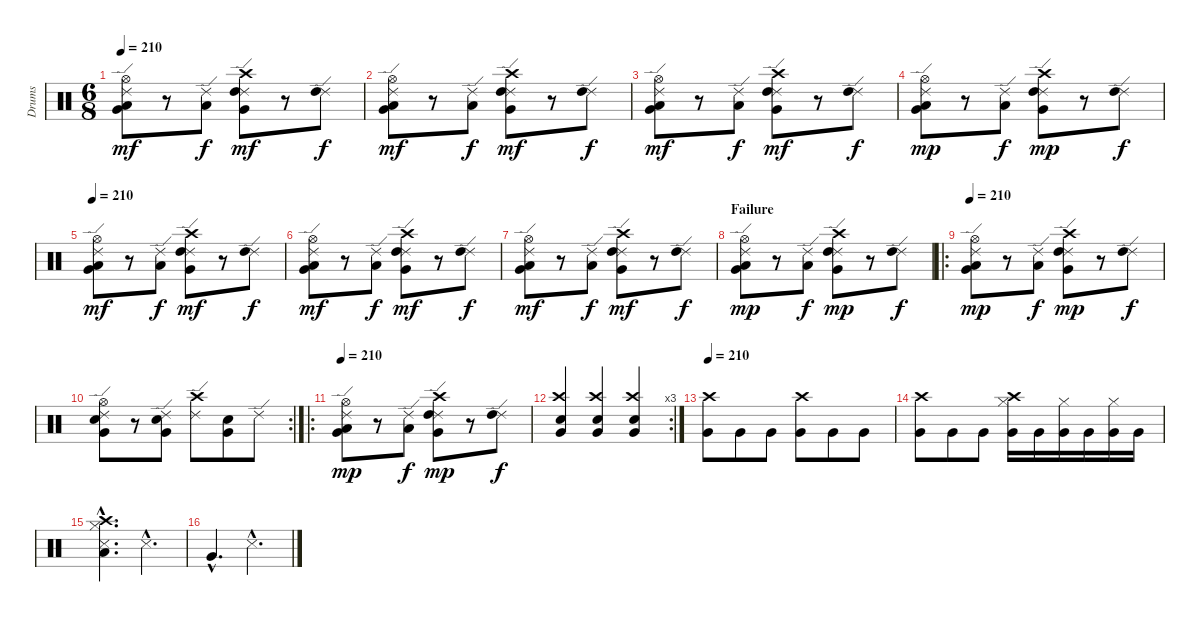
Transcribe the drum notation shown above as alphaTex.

\track ("Drums" "Drums") {instrument percussion}
\staff {score}
\articulation defaults
\ts (6 8)
\tempo 210
\clef neutral
\ks c
("Ride (edge) 2" "Hi-Hat (open)" "Low Tom (hit)" "Very Low Tom (hit)").8{dy mf} r.8 ("Ride (edge) 2" "Low Tom (hit)").8{dy f} ("Ride (edge) 2" "Crash high (hit)" "High Tom (hit)" "Very Low Tom (hit)").8{dy mf} r.8 ("Ride (edge) 2" "High Tom (hit)").8{dy f} |
("Ride (edge) 2" "Hi-Hat (open)" "Low Tom (hit)" "Very Low Tom (hit)").8{dy mf} r.8 ("Ride (edge) 2" "Low Tom (hit)").8{dy f} ("Ride (edge) 2" "Crash high (hit)" "High Tom (hit)" "Very Low Tom (hit)").8{dy mf} r.8 ("Ride (edge) 2" "High Tom (hit)").8{dy f} |
("Ride (edge) 2" "Hi-Hat (open)" "Low Tom (hit)" "Very Low Tom (hit)").8{dy mf} r.8 ("Ride (edge) 2" "Low Tom (hit)").8{dy f} ("Ride (edge) 2" "Crash high (hit)" "High Tom (hit)" "Very Low Tom (hit)").8{dy mf} r.8 ("Ride (edge) 2" "High Tom (hit)").8{dy f} |
("Ride (edge) 2" "Hi-Hat (open)" "Low Tom (hit)" "Very Low Tom (hit)").8{dy mp} r.8 ("Ride (edge) 2" "Low Tom (hit)").8{dy f} ("Ride (edge) 2" "Crash high (hit)" "High Tom (hit)" "Very Low Tom (hit)").8{dy mp} r.8 ("Ride (edge) 2" "High Tom (hit)").8{dy f} |
\tempo 210
("Ride (edge) 2" "Hi-Hat (open)" "Low Tom (hit)" "Very Low Tom (hit)").8{dy mf} r.8 ("Ride (edge) 2" "Low Tom (hit)").8{dy f} ("Ride (edge) 2" "Crash high (hit)" "High Tom (hit)" "Very Low Tom (hit)").8{dy mf} r.8 ("Ride (edge) 2" "High Tom (hit)").8{dy f} |
("Ride (edge) 2" "Hi-Hat (open)" "Low Tom (hit)" "Very Low Tom (hit)").8{dy mf} r.8 ("Ride (edge) 2" "Low Tom (hit)").8{dy f} ("Ride (edge) 2" "Crash high (hit)" "High Tom (hit)" "Very Low Tom (hit)").8{dy mf} r.8 ("Ride (edge) 2" "High Tom (hit)").8{dy f} |
("Ride (edge) 2" "Hi-Hat (open)" "Low Tom (hit)" "Very Low Tom (hit)").8{dy mf} r.8 ("Ride (edge) 2" "Low Tom (hit)").8{dy f} ("Ride (edge) 2" "Crash high (hit)" "High Tom (hit)" "Very Low Tom (hit)").8{dy mf} r.8 ("Ride (edge) 2" "High Tom (hit)").8{dy f} |
\section ("" "Failure")
("Ride (edge) 2" "Hi-Hat (open)" "Low Tom (hit)" "Very Low Tom (hit)").8{dy mp} r.8 ("Ride (edge) 2" "Low Tom (hit)").8{dy f} ("Ride (edge) 2" "Crash high (hit)" "High Tom (hit)" "Very Low Tom (hit)").8{dy mp} r.8 ("Ride (edge) 2" "High Tom (hit)").8{dy f} |
\ro
\tempo 210
("Ride (edge) 2" "Hi-Hat (open)" "Low Tom (hit)" "Very Low Tom (hit)").8{dy mp} r.8 ("Ride (edge) 2" "Low Tom (hit)").8{dy f} ("Ride (edge) 2" "Crash high (hit)" "High Tom (hit)" "Very Low Tom (hit)").8{dy mp} r.8 ("Ride (edge) 2" "High Tom (hit)").8{dy f} |
\rc 2
("Ride (edge) 2" "Hi-Hat (open)" "Electric Snare (hit)" "Very Low Tom (hit)").8 r.8 ("Ride (edge) 2" "Electric Snare (hit)" "Very Low Tom (hit)").8 ("Ride (edge) 2" "Crash high (hit)").8 ("Electric Snare (hit)" "Very Low Tom (hit)").8 "Ride (edge) 2".8 |
\ro
\tempo 210
("Ride (edge) 2" "Hi-Hat (open)" "Low Tom (hit)" "Very Low Tom (hit)").8{dy mp} r.8 ("Ride (edge) 2" "Low Tom (hit)").8{dy f} ("Ride (edge) 2" "Crash high (hit)" "High Tom (hit)" "Very Low Tom (hit)").8{dy mp} r.8 ("Ride (edge) 2" "High Tom (hit)").8{dy f} |
\rc 3
("Crash high (hit)" "Electric Snare (hit)" "Very Low Tom (hit)").4 ("Crash high (hit)" "Electric Snare (hit)" "Very Low Tom (hit)").4 ("Crash high (hit)" "Electric Snare (hit)" "Very Low Tom (hit)").4 |
\tempo 210
("Crash high (hit)" "Very Low Tom (hit)").8 "Very Low Tom (hit)".8 "Very Low Tom (hit)".8 ("Crash high (hit)" "Very Low Tom (hit)").8 "Very Low Tom (hit)".8 "Very Low Tom (hit)".8 |
("Crash high (hit)" "Very Low Tom (hit)").8 "Very Low Tom (hit)".8 "Very Low Tom (hit)".8 ("Hi-Hat (closed)" "Crash high (hit)" "Very Low Tom (hit)").16 "Very Low Tom (hit)".16 ("Hi-Hat (closed)" "Very Low Tom (hit)").16 "Very Low Tom (hit)".16 ("Hi-Hat (closed)" "Very Low Tom (hit)").16 "Very Low Tom (hit)".16 |
("Hi-Hat (closed)"{hac} "Crash high (hit)"{hac} "Snare (side stick) 3"{hac} "Low Floor Tom (hit)"{hac}).4{d} "Snare (side stick) 3"{hac}.4{d} |
"Very Low Tom (hit)"{hac}.4{d} "Snare (side stick) 3"{hac}.4{d}
